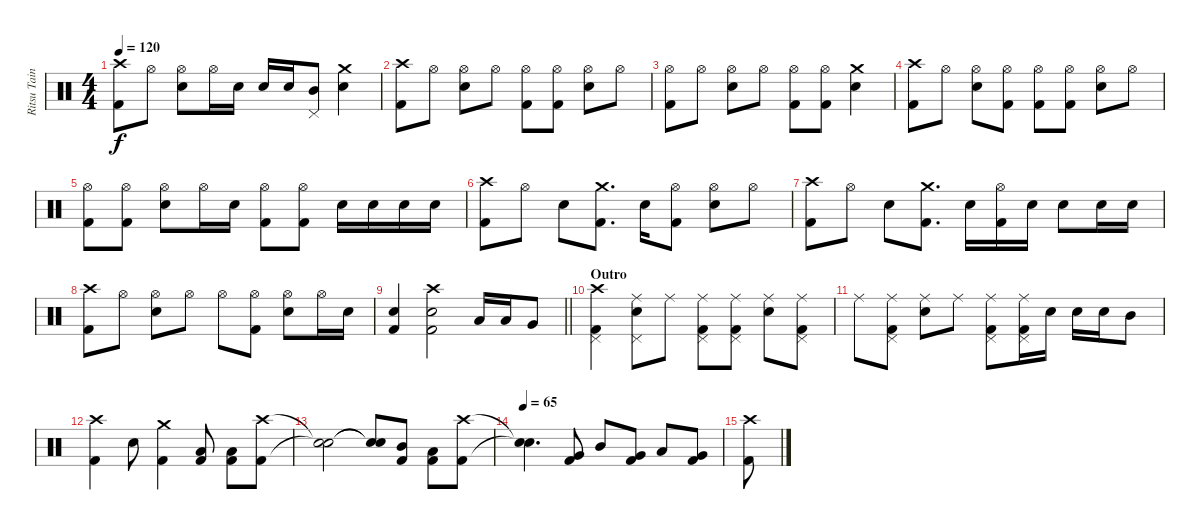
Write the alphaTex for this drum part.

\track ("Ritsu Tainaka" "Ritsu Tain") {instrument percussion}
\staff {score}
\articulation defaults
\ts (4 4)
\tempo 120
\clef neutral
\ks c
("Crash high (hit)" "Kick (hit) 2").8{dy f} "Hi-Hat (open)".8 ("Hi-Hat (open)" "Snare (hit) 2").8 "Hi-Hat (open)".16 "Snare (hit) 2".16 "Snare (hit) 2".16 "Snare (hit) 2".16 ("Mid Tom (hit)" "Pedal Hi-Hat (hit)").8 ("Crash medium (hit)" "Snare (hit) 2").4 |
("Crash high (hit)" "Kick (hit) 2").8 "Hi-Hat (open)".8 ("Hi-Hat (open)" "Snare (hit) 2").8 "Hi-Hat (open)".8 ("Hi-Hat (open)" "Kick (hit) 2").8 ("Hi-Hat (open)" "Kick (hit) 2").8 ("Hi-Hat (open)" "Snare (hit) 2").8 "Hi-Hat (open)".8 |
("Hi-Hat (open)" "Kick (hit) 2").8 "Hi-Hat (open)".8 ("Hi-Hat (open)" "Snare (hit) 2").8 "Hi-Hat (open)".8 ("Hi-Hat (open)" "Kick (hit) 2").8 ("Hi-Hat (open)" "Kick (hit) 2").8 ("Crash medium (hit)" "Snare (hit) 2").4 |
("Crash high (hit)" "Kick (hit) 2").8 "Hi-Hat (open)".8 ("Hi-Hat (open)" "Snare (hit) 2").8 ("Hi-Hat (open)" "Kick (hit) 2").8 ("Hi-Hat (open)" "Kick (hit) 2").8 ("Hi-Hat (open)" "Kick (hit) 2").8 ("Hi-Hat (open)" "Snare (hit) 2").8 "Hi-Hat (open)".8 |
("Hi-Hat (open)" "Kick (hit) 2").8 ("Hi-Hat (open)" "Kick (hit) 2").8 ("Hi-Hat (open)" "Snare (hit) 2").8 "Hi-Hat (open)".16 "Snare (hit) 2".16 ("Hi-Hat (open)" "Kick (hit) 2").8 ("Hi-Hat (open)" "Kick (hit) 2").8 "Snare (hit) 2".16 "Snare (hit) 2".16 "Snare (hit) 2".16 "Snare (hit) 2".16 |
("Crash high (hit)" "Kick (hit) 2").8 "Hi-Hat (open)".8 "Snare (hit) 2".8 ("Crash medium (hit)" "Kick (hit) 2").8{d} "Snare (hit) 2".16 ("Hi-Hat (open)" "Kick (hit) 2").8 ("Hi-Hat (open)" "Snare (hit) 2").8 "Hi-Hat (open)".8 |
("Crash high (hit)" "Kick (hit) 2").8 "Hi-Hat (open)".8 "Snare (hit) 2".8 ("Crash medium (hit)" "Kick (hit) 2").8{d} "Snare (hit) 2".16 ("Hi-Hat (open)" "Kick (hit) 2").16 "Snare (hit) 2".16 "Snare (hit) 2".8 "Snare (hit) 2".16 "Snare (hit) 2".16 |
("Crash high (hit)" "Kick (hit) 2").8 "Hi-Hat (open)".8 ("Hi-Hat (open)" "Snare (hit) 2").8 "Hi-Hat (open)".8 "Hi-Hat (open)".8 ("Hi-Hat (open)" "Kick (hit) 2").8 ("Hi-Hat (open)" "Snare (hit) 2").8 "Hi-Hat (open)".16 "Snare (hit) 2".16 |
\barLineRight lightlight
("Snare (hit) 2" "Kick (hit) 2").4 ("Crash high (hit)" "Snare (hit) 2" "Kick (hit) 2").2 "Low Tom (hit)".16 "Low Tom (hit)".16 "Very Low Tom (hit)".8 |
\section ("" "Outro")
("Crash high (hit)" "Pedal Hi-Hat (hit)" "Kick (hit) 2").4 ("Ride (middle)" "Pedal Hi-Hat (hit)" "Snare (hit) 2").8 "Ride (middle)".8 ("Ride (middle)" "Pedal Hi-Hat (hit)" "Kick (hit) 2").8 ("Ride (middle)" "Pedal Hi-Hat (hit)" "Kick (hit) 2").8 ("Ride (middle)" "Snare (hit) 2").8 ("Ride (middle)" "Pedal Hi-Hat (hit)" "Kick (hit) 2").8 |
"Ride (middle)".8 ("Ride (middle)" "Pedal Hi-Hat (hit)" "Kick (hit) 2").8 ("Ride (middle)" "Snare (hit) 2").8 "Ride (middle)".8 ("Ride (middle)" "Pedal Hi-Hat (hit)" "Kick (hit) 2").8 ("Ride (middle)" "Pedal Hi-Hat (hit)" "Kick (hit) 2").16 "Snare (hit) 2".16 "Snare (hit) 2".16 "Snare (hit) 2".16 "Mid Tom (hit)".8 |
("Crash high (hit)" "Kick (hit) 2").4 "Snare (hit) 2".8 ("Crash medium (hit)" "Kick (hit) 2").4 ("Low Tom (hit)" "Kick (hit) 2").8 ("Low Tom (hit)" "Kick (hit) 2").8 ("Crash high (hit)" "Kick (hit) 2").8 |
("Snare (hit)"{t} "Snare (hit)"{t}).2 ("Snare (hit)"{t} "Snare (hit)"{t}).8 ("Mid Tom (hit)" "Kick (hit) 2").8 ("Low Tom (hit)" "Kick (hit) 2").8 ("Crash high (hit)" "Kick (hit) 2").8 |
\tempo 65
("Snare (hit)"{t} "Snare (hit)"{t}).4{d} ("Very Low Tom (hit)" "Kick (hit) 2").8 "Mid Tom (hit)".8 ("Very Low Tom (hit)" "Kick (hit) 2").8 "Low Tom (hit)".8 ("Very Low Tom (hit)" "Kick (hit) 2").8 |
("Crash high (hit)" "Kick (hit) 2").8
